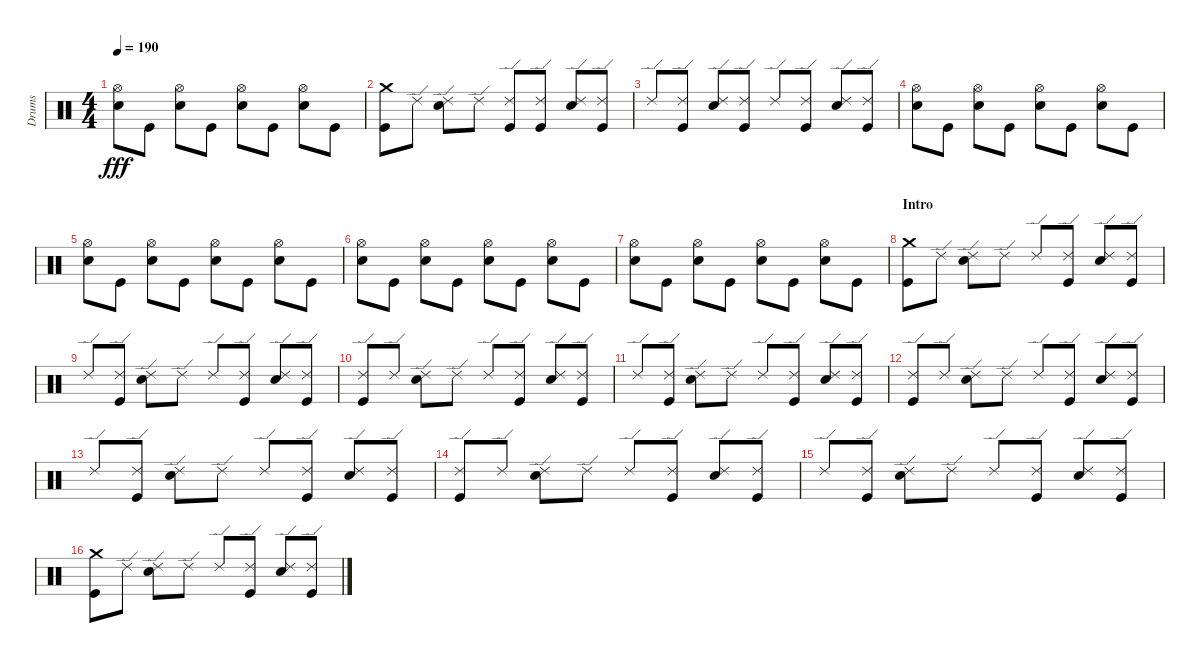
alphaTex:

\track ("Drums" "Drums") {instrument percussion}
\staff {score}
\articulation defaults
\ts (4 4)
\tempo 190
\clef neutral
\ks c
("Hi-Hat (open)" "Snare (hit) 2").8{dy fff} "Kick (hit)".8 ("Hi-Hat (open)" "Snare (hit) 2").8 "Kick (hit)".8 ("Hi-Hat (open)" "Snare (hit) 2").8 "Kick (hit)".8 ("Hi-Hat (open)" "Snare (hit) 2").8 "Kick (hit)".8 |
("Crash medium (hit)" "Kick (hit)").8 "Ride (edge) 2".8 ("Ride (edge) 2" "Snare (hit) 2").8 "Ride (edge) 2".8 ("Ride (edge) 2" "Kick (hit)").8 ("Ride (edge) 2" "Kick (hit)").8 ("Ride (edge) 2" "Snare (hit) 2").8 ("Ride (edge) 2" "Kick (hit)").8 |
"Ride (edge) 2".8 ("Ride (edge) 2" "Kick (hit)").8 ("Ride (edge) 2" "Snare (hit) 2").8 ("Ride (edge) 2" "Kick (hit)").8 "Ride (edge) 2".8 ("Ride (edge) 2" "Kick (hit)").8 ("Ride (edge) 2" "Snare (hit) 2").8 ("Ride (edge) 2" "Kick (hit)").8 |
("Hi-Hat (open)" "Snare (hit) 2").8 "Kick (hit)".8 ("Hi-Hat (open)" "Snare (hit) 2").8 "Kick (hit)".8 ("Hi-Hat (open)" "Snare (hit) 2").8 "Kick (hit)".8 ("Hi-Hat (open)" "Snare (hit) 2").8 "Kick (hit)".8 |
("Hi-Hat (open)" "Snare (hit) 2").8 "Kick (hit)".8 ("Hi-Hat (open)" "Snare (hit) 2").8 "Kick (hit)".8 ("Hi-Hat (open)" "Snare (hit) 2").8 "Kick (hit)".8 ("Hi-Hat (open)" "Snare (hit) 2").8 "Kick (hit)".8 |
("Hi-Hat (open)" "Snare (hit) 2").8 "Kick (hit)".8 ("Hi-Hat (open)" "Snare (hit) 2").8 "Kick (hit)".8 ("Hi-Hat (open)" "Snare (hit) 2").8 "Kick (hit)".8 ("Hi-Hat (open)" "Snare (hit) 2").8 "Kick (hit)".8 |
("Hi-Hat (open)" "Snare (hit) 2").8 "Kick (hit)".8 ("Hi-Hat (open)" "Snare (hit) 2").8 "Kick (hit)".8 ("Hi-Hat (open)" "Snare (hit) 2").8 "Kick (hit)".8 ("Hi-Hat (open)" "Snare (hit) 2").8 "Kick (hit)".8 |
\section ("" "Intro")
("Crash medium (hit)" "Kick (hit)").8 "Ride (edge) 2".8 ("Ride (edge) 2" "Snare (hit) 2").8 "Ride (edge) 2".8 "Ride (edge) 2".8 ("Ride (edge) 2" "Kick (hit)").8 ("Ride (edge) 2" "Snare (hit) 2").8 ("Ride (edge) 2" "Kick (hit)").8 |
"Ride (edge) 2".8 ("Ride (edge) 2" "Kick (hit)").8 ("Ride (edge) 2" "Snare (hit) 2").8 "Ride (edge) 2".8 "Ride (edge) 2".8 ("Ride (edge) 2" "Kick (hit)").8 ("Ride (edge) 2" "Snare (hit) 2").8 ("Ride (edge) 2" "Kick (hit)").8 |
("Ride (edge) 2" "Kick (hit)").8 "Ride (edge) 2".8 ("Ride (edge) 2" "Snare (hit) 2").8 "Ride (edge) 2".8 "Ride (edge) 2".8 ("Ride (edge) 2" "Kick (hit)").8 ("Ride (edge) 2" "Snare (hit) 2").8 ("Ride (edge) 2" "Kick (hit)").8 |
"Ride (edge) 2".8 ("Ride (edge) 2" "Kick (hit)").8 ("Ride (edge) 2" "Snare (hit) 2").8 "Ride (edge) 2".8 "Ride (edge) 2".8 ("Ride (edge) 2" "Kick (hit)").8 ("Ride (edge) 2" "Snare (hit) 2").8 ("Ride (edge) 2" "Kick (hit)").8 |
("Ride (edge) 2" "Kick (hit)").8 "Ride (edge) 2".8 ("Ride (edge) 2" "Snare (hit) 2").8 "Ride (edge) 2".8 "Ride (edge) 2".8 ("Ride (edge) 2" "Kick (hit)").8 ("Ride (edge) 2" "Snare (hit) 2").8 ("Ride (edge) 2" "Kick (hit)").8 |
"Ride (edge) 2".8 ("Ride (edge) 2" "Kick (hit)").8 ("Ride (edge) 2" "Snare (hit) 2").8 "Ride (edge) 2".8 "Ride (edge) 2".8 ("Ride (edge) 2" "Kick (hit)").8 ("Ride (edge) 2" "Snare (hit) 2").8 ("Ride (edge) 2" "Kick (hit)").8 |
("Ride (edge) 2" "Kick (hit)").8 "Ride (edge) 2".8 ("Ride (edge) 2" "Snare (hit) 2").8 "Ride (edge) 2".8 "Ride (edge) 2".8 ("Ride (edge) 2" "Kick (hit)").8 ("Ride (edge) 2" "Snare (hit) 2").8 ("Ride (edge) 2" "Kick (hit)").8 |
"Ride (edge) 2".8 ("Ride (edge) 2" "Kick (hit)").8 ("Ride (edge) 2" "Snare (hit) 2").8 "Ride (edge) 2".8 "Ride (edge) 2".8 ("Ride (edge) 2" "Kick (hit)").8 ("Ride (edge) 2" "Snare (hit) 2").8 ("Ride (edge) 2" "Kick (hit)").8 |
("Crash medium (hit)" "Kick (hit)").8 "Ride (edge) 2".8 ("Ride (edge) 2" "Snare (hit) 2").8 "Ride (edge) 2".8 "Ride (edge) 2".8 ("Ride (edge) 2" "Kick (hit)").8 ("Ride (edge) 2" "Snare (hit) 2").8 ("Ride (edge) 2" "Kick (hit)").8
